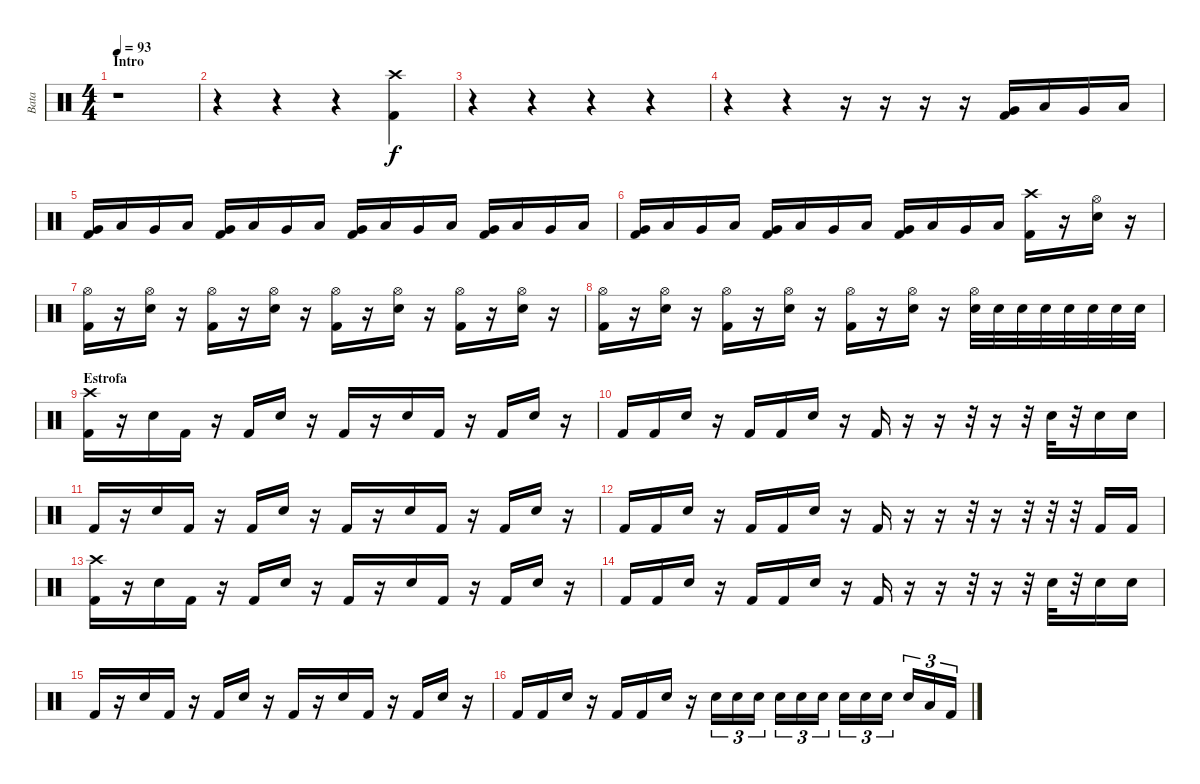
\track ("Bata" "Bata") {instrument percussion}
\staff {score}
\articulation defaults
\ts (4 4)
\section ("" "Intro")
\tempo 93
\clef neutral
\ks c
r.1{dy f} |
r.4 r.4 r.4 ("Kick (hit) 2" "Crash high (hit)").4 |
r.4 r.4 r.4 r.4 |
r.4 r.4 r.16 r.16 r.16 r.16 ("Very Low Tom (hit)" "Kick (hit) 2").16 "Low Floor Tom (hit)".16 "Very Low Tom (hit)".16 "Low Floor Tom (hit)".16 |
("Very Low Tom (hit)" "Kick (hit) 2").16 "Low Floor Tom (hit)".16 "Very Low Tom (hit)".16 "Low Floor Tom (hit)".16 ("Very Low Tom (hit)" "Kick (hit) 2").16 "Low Floor Tom (hit)".16 "Very Low Tom (hit)".16 "Low Floor Tom (hit)".16 ("Very Low Tom (hit)" "Kick (hit) 2").16 "Low Floor Tom (hit)".16 "Very Low Tom (hit)".16 "Low Floor Tom (hit)".16 ("Very Low Tom (hit)" "Kick (hit) 2").16 "Low Floor Tom (hit)".16 "Very Low Tom (hit)".16 "Low Floor Tom (hit)".16 |
("Very Low Tom (hit)" "Kick (hit) 2").16 "Low Floor Tom (hit)".16 "Very Low Tom (hit)".16 "Low Floor Tom (hit)".16 ("Very Low Tom (hit)" "Kick (hit) 2").16 "Low Floor Tom (hit)".16 "Very Low Tom (hit)".16 "Low Floor Tom (hit)".16 ("Very Low Tom (hit)" "Kick (hit) 2").16 "Low Floor Tom (hit)".16 "Very Low Tom (hit)".16 "Low Floor Tom (hit)".16 ("Crash high (hit)" "Kick (hit) 2").16 r.16 ("Hi-Hat (open)" "Electric Snare (hit)").16 r.16 |
("Hi-Hat (open)" "Kick (hit) 2").16 r.16 ("Hi-Hat (open)" "Electric Snare (hit)").16 r.16 ("Hi-Hat (open)" "Kick (hit) 2").16 r.16 ("Hi-Hat (open)" "Electric Snare (hit)").16 r.16 ("Hi-Hat (open)" "Kick (hit) 2").16 r.16 ("Hi-Hat (open)" "Electric Snare (hit)").16 r.16 ("Hi-Hat (open)" "Kick (hit) 2").16 r.16 ("Hi-Hat (open)" "Electric Snare (hit)").16 r.16 |
("Hi-Hat (open)" "Kick (hit) 2").16 r.16 ("Hi-Hat (open)" "Electric Snare (hit)").16 r.16 ("Hi-Hat (open)" "Kick (hit) 2").16 r.16 ("Hi-Hat (open)" "Electric Snare (hit)").16 r.16 ("Hi-Hat (open)" "Kick (hit) 2").16 r.16 ("Hi-Hat (open)" "Electric Snare (hit)").16 r.16 ("Hi-Hat (open)" "Electric Snare (hit)").32 "Electric Snare (hit)".32 "Electric Snare (hit)".32 "Electric Snare (hit)".32 "Electric Snare (hit)".32 "Electric Snare (hit)".32 "Electric Snare (hit)".32 "Electric Snare (hit)".32 |
\section ("" "Estrofa")
("Crash high (hit)" "Kick (hit) 2").16 r.16 "Snare (hit) 2".16 "Kick (hit) 2".16 r.16 "Kick (hit) 2".16 "Snare (hit) 2".16 r.16 "Kick (hit) 2".16 r.16 "Snare (hit) 2".16 "Kick (hit) 2".16 r.16 "Kick (hit) 2".16 "Snare (hit) 2".16 r.16 |
"Kick (hit) 2".16 "Kick (hit) 2".16 "Snare (hit) 2".16 r.16 "Kick (hit) 2".16 "Kick (hit) 2".16 "Snare (hit) 2".16 r.16 "Kick (hit) 2".16 r.16 r.16 r.32 r.16 r.32 "Snare (hit) 2".32 r.32 "Snare (hit) 2".16 "Snare (hit) 2".16 |
"Kick (hit) 2".16 r.16 "Snare (hit) 2".16 "Kick (hit) 2".16 r.16 "Kick (hit) 2".16 "Snare (hit) 2".16 r.16 "Kick (hit) 2".16 r.16 "Snare (hit) 2".16 "Kick (hit) 2".16 r.16 "Kick (hit) 2".16 "Snare (hit) 2".16 r.16 |
"Kick (hit) 2".16 "Kick (hit) 2".16 "Snare (hit) 2".16 r.16 "Kick (hit) 2".16 "Kick (hit) 2".16 "Snare (hit) 2".16 r.16 "Kick (hit) 2".16 r.16 r.16 r.32 r.16 r.32 r.32 r.32 "Kick (hit) 2".16 "Kick (hit) 2".16 |
("Crash high (hit)" "Kick (hit) 2").16 r.16 "Snare (hit) 2".16 "Kick (hit) 2".16 r.16 "Kick (hit) 2".16 "Snare (hit) 2".16 r.16 "Kick (hit) 2".16 r.16 "Snare (hit) 2".16 "Kick (hit) 2".16 r.16 "Kick (hit) 2".16 "Snare (hit) 2".16 r.16 |
"Kick (hit) 2".16 "Kick (hit) 2".16 "Snare (hit) 2".16 r.16 "Kick (hit) 2".16 "Kick (hit) 2".16 "Snare (hit) 2".16 r.16 "Kick (hit) 2".16 r.16 r.16 r.32 r.16 r.32 "Snare (hit) 2".32 r.32 "Snare (hit) 2".16 "Snare (hit) 2".16 |
"Kick (hit) 2".16 r.16 "Snare (hit) 2".16 "Kick (hit) 2".16 r.16 "Kick (hit) 2".16 "Snare (hit) 2".16 r.16 "Kick (hit) 2".16 r.16 "Snare (hit) 2".16 "Kick (hit) 2".16 r.16 "Kick (hit) 2".16 "Snare (hit) 2".16 r.16 |
"Kick (hit) 2".16 "Kick (hit) 2".16 "Snare (hit) 2".16 r.16 "Kick (hit) 2".16 "Kick (hit) 2".16 "Snare (hit) 2".16 r.16 "Snare (hit) 2".16{tu (3 2)} "Snare (hit) 2".16{tu (3 2)} "Snare (hit) 2".16{tu (3 2)} "Snare (hit) 2".16{tu (3 2)} "Snare (hit) 2".16{tu (3 2)} "Snare (hit) 2".16{tu (3 2)} "Snare (hit) 2".16{tu (3 2)} "Snare (hit) 2".16{tu (3 2)} "Snare (hit) 2".16{tu (3 2)} "Snare (hit) 2".16{tu (3 2)} "Low Floor Tom (hit)".16{tu (3 2)} "Kick (hit) 2".16{tu (3 2)}
